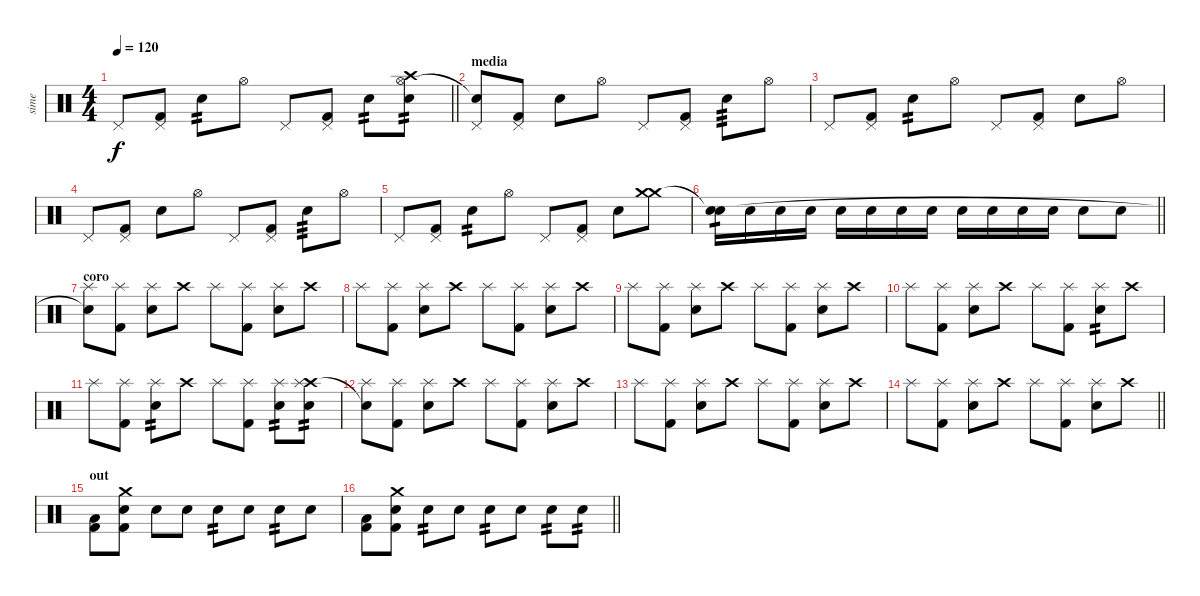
\track ("sime" "sime") {instrument percussion}
\staff {score}
\articulation defaults
\ts (4 4)
\tempo 120
\clef neutral
\barLineRight lightlight
\ks c "Pedal Hi-Hat (hit)".8{dy f}
("Kick (hit) 2" "Pedal Hi-Hat (hit)").8 "Snare (hit) 2".8{tp 2} "Hi-Hat (open)".8 "Pedal Hi-Hat (hit)".8 ("Kick (hit) 2" "Pedal Hi-Hat (hit)").8 "Snare (hit) 2".8{tp 2} ("Snare (hit) 2" "Hi-Hat (open)" "Crash high (hit)").8{tp 2} |
\section ("" "media")
("Pedal Hi-Hat (hit)" "Snare (hit)"{t}).8 ("Kick (hit) 2" "Pedal Hi-Hat (hit)").8 "Snare (hit) 2".8 "Hi-Hat (open)".8 "Pedal Hi-Hat (hit)".8 ("Kick (hit) 2" "Pedal Hi-Hat (hit)").8 "Snare (hit) 2".8{tp 3} "Hi-Hat (open)".8 |
"Pedal Hi-Hat (hit)".8 ("Kick (hit) 2" "Pedal Hi-Hat (hit)").8 "Snare (hit) 2".8{tp 2} "Hi-Hat (open)".8 "Pedal Hi-Hat (hit)".8 ("Kick (hit) 2" "Pedal Hi-Hat (hit)").8 "Snare (hit) 2".8 "Hi-Hat (open)".8 |
"Pedal Hi-Hat (hit)".8 ("Kick (hit) 2" "Pedal Hi-Hat (hit)").8 "Snare (hit) 2".8 "Hi-Hat (open)".8 "Pedal Hi-Hat (hit)".8 ("Kick (hit) 2" "Pedal Hi-Hat (hit)").8 "Snare (hit) 2".8{tp 3} "Hi-Hat (open)".8 |
"Pedal Hi-Hat (hit)".8 ("Kick (hit) 2" "Pedal Hi-Hat (hit)").8 "Snare (hit) 2".8{tp 2} "Hi-Hat (open)".8 "Pedal Hi-Hat (hit)".8 ("Kick (hit) 2" "Pedal Hi-Hat (hit)").8 "Snare (hit) 2".8 ("Crash medium (hit)" "Crash medium (hit)").8 |
\barLineRight lightlight
("Snare (hit) 2" "Snare (hit)"{t}).16{tp 1} "Snare (hit) 2".16 "Snare (hit) 2".16 "Snare (hit) 2".16 "Snare (hit) 2".16 "Snare (hit) 2".16 "Snare (hit) 2".16 "Snare (hit) 2".16 "Snare (hit) 2".16 "Snare (hit) 2".16 "Snare (hit) 2".16 "Snare (hit) 2".16 "Snare (hit) 2".8 "Snare (hit) 2".8 |
\section ("" "coro")
("Splash (hit)" "Snare (hit)"{t}).8 ("Kick (hit) 2" "Splash (hit)").8 ("Snare (hit) 2" "Splash (hit)").8 "Crash high (hit)".8 "Splash (hit)".8 ("Kick (hit) 2" "Splash (hit)").8 ("Snare (hit) 2" "Splash (hit)").8 "Crash high (hit)".8 |
"Splash (hit)".8 ("Kick (hit) 2" "Splash (hit)").8 ("Snare (hit) 2" "Splash (hit)").8 "Crash high (hit)".8 "Splash (hit)".8 ("Kick (hit) 2" "Splash (hit)").8 ("Snare (hit) 2" "Splash (hit)").8 "Crash high (hit)".8 |
"Splash (hit)".8 ("Kick (hit) 2" "Splash (hit)").8 ("Snare (hit) 2" "Splash (hit)").8 "Crash high (hit)".8 "Splash (hit)".8 ("Kick (hit) 2" "Splash (hit)").8 ("Snare (hit) 2" "Splash (hit)").8 "Crash high (hit)".8 |
"Splash (hit)".8 ("Kick (hit) 2" "Splash (hit)").8 ("Snare (hit) 2" "Splash (hit)").8 "Crash high (hit)".8 "Splash (hit)".8 ("Kick (hit) 2" "Splash (hit)").8 ("Snare (hit) 2" "Splash (hit)").8{tp 2} "Crash high (hit)".8 |
"Splash (hit)".8 ("Kick (hit) 2" "Splash (hit)").8 ("Snare (hit) 2" "Splash (hit)").8{tp 2} "Crash high (hit)".8 "Splash (hit)".8 ("Kick (hit) 2" "Splash (hit)").8 ("Snare (hit) 2" "Splash (hit)").8{tp 2} ("Snare (hit) 2" "Crash high (hit)" "Splash (hit)").8{tp 2} |
("Splash (hit)" "Snare (hit)"{t}).8 ("Kick (hit) 2" "Splash (hit)").8 ("Snare (hit) 2" "Splash (hit)").8 "Crash high (hit)".8 "Splash (hit)".8 ("Kick (hit) 2" "Splash (hit)").8 ("Snare (hit) 2" "Splash (hit)").8 "Crash high (hit)".8 |
"Splash (hit)".8 ("Kick (hit) 2" "Splash (hit)").8 ("Snare (hit) 2" "Splash (hit)").8 "Crash high (hit)".8 "Splash (hit)".8 ("Kick (hit) 2" "Splash (hit)").8 ("Snare (hit) 2" "Splash (hit)").8 "Crash high (hit)".8 |
\barLineRight lightlight "Splash (hit)".8
("Kick (hit) 2" "Splash (hit)").8 ("Snare (hit) 2" "Splash (hit)").8 "Crash high (hit)".8 "Splash (hit)".8 ("Kick (hit) 2" "Splash (hit)").8 ("Snare (hit) 2" "Splash (hit)").8 "Crash high (hit)".8 |
\section ("" "out")
("Kick (hit) 2" "Low Floor Tom (hit)").8 ("Kick (hit) 2" "Snare (hit) 2" "Crash medium (hit)").8 "Snare (hit) 2".8 "Snare (hit) 2".8 "Snare (hit) 2".8{tp 2} "Snare (hit) 2".8 "Snare (hit) 2".8{tp 2} "Snare (hit) 2".8 |
\barLineRight lightlight
("Kick (hit) 2" "Low Floor Tom (hit)").8 ("Kick (hit) 2" "Snare (hit) 2" "Crash medium (hit)").8 "Snare (hit) 2".8{tp 2} "Snare (hit) 2".8 "Snare (hit) 2".8{tp 2} "Snare (hit) 2".8 "Snare (hit) 2".8{tp 2} "Snare (hit) 2".8{tp 2}
